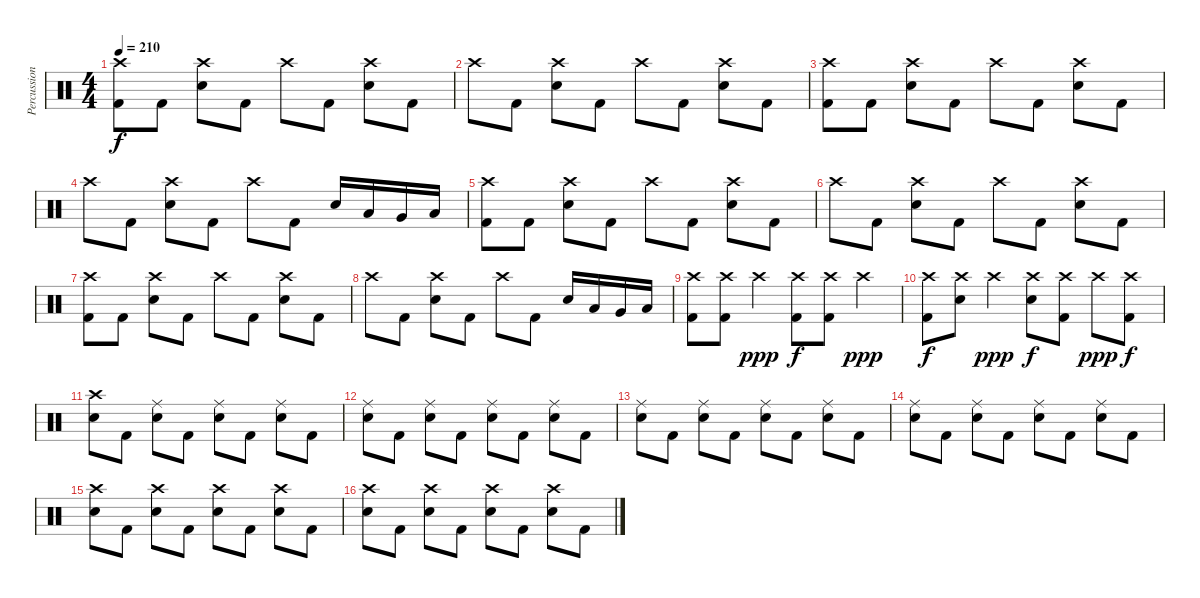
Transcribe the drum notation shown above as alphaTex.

\track ("Percussion" "Percussion") {instrument percussion}
\staff {score}
\articulation defaults
\ts (4 4)
\tempo 210
\clef neutral
\ks c
("Crash high (hit)" "Kick (hit) 2").8{dy f} "Kick (hit) 2".8 ("Crash high (hit)" "Electric Snare (hit)").8 "Kick (hit) 2".8 "Crash high (hit)".8 "Kick (hit) 2".8 ("Crash high (hit)" "Electric Snare (hit)").8 "Kick (hit) 2".8 |
"Crash high (hit)".8 "Kick (hit) 2".8 ("Crash high (hit)" "Electric Snare (hit)").8 "Kick (hit) 2".8 "Crash high (hit)".8 "Kick (hit) 2".8 ("Crash high (hit)" "Electric Snare (hit)").8 "Kick (hit) 2".8 |
("Crash high (hit)" "Kick (hit) 2").8 "Kick (hit) 2".8 ("Crash high (hit)" "Electric Snare (hit)").8 "Kick (hit) 2".8 "Crash high (hit)".8 "Kick (hit) 2".8 ("Crash high (hit)" "Electric Snare (hit)").8 "Kick (hit) 2".8 |
"Crash high (hit)".8 "Kick (hit) 2".8 ("Crash high (hit)" "Electric Snare (hit)").8 "Kick (hit) 2".8 "Crash high (hit)".8 "Kick (hit) 2".8 "Electric Snare (hit)".16 "Low Tom (hit)".16 "Very Low Tom (hit)".16 "Low Floor Tom (hit)".16 |
("Crash high (hit)" "Kick (hit) 2").8 "Kick (hit) 2".8 ("Crash high (hit)" "Electric Snare (hit)").8 "Kick (hit) 2".8 "Crash high (hit)".8 "Kick (hit) 2".8 ("Crash high (hit)" "Electric Snare (hit)").8 "Kick (hit) 2".8 |
"Crash high (hit)".8 "Kick (hit) 2".8 ("Crash high (hit)" "Electric Snare (hit)").8 "Kick (hit) 2".8 "Crash high (hit)".8 "Kick (hit) 2".8 ("Crash high (hit)" "Electric Snare (hit)").8 "Kick (hit) 2".8 |
("Crash high (hit)" "Kick (hit) 2").8 "Kick (hit) 2".8 ("Crash high (hit)" "Electric Snare (hit)").8 "Kick (hit) 2".8 "Crash high (hit)".8 "Kick (hit) 2".8 ("Crash high (hit)" "Electric Snare (hit)").8 "Kick (hit) 2".8 |
"Crash high (hit)".8 "Kick (hit) 2".8 ("Crash high (hit)" "Electric Snare (hit)").8 "Kick (hit) 2".8 "Crash high (hit)".8 "Kick (hit) 2".8 "Electric Snare (hit)".16 "Low Tom (hit)".16 "Very Low Tom (hit)".16 "Low Floor Tom (hit)".16 |
("Crash high (hit)" "Kick (hit) 2").8 ("Crash high (hit)" "Kick (hit) 2").8 "Crash high (hit)".4{dy ppp} ("Crash high (hit)" "Kick (hit) 2").8{dy f} ("Crash high (hit)" "Kick (hit) 2").8 "Crash high (hit)".4{dy ppp} |
("Crash high (hit)" "Kick (hit) 2").8{dy f} ("Crash high (hit)" "Electric Snare (hit)").8 "Crash high (hit)".4{dy ppp} ("Crash high (hit)" "Electric Snare (hit)").8{dy f} ("Crash high (hit)" "Kick (hit) 2").8 "Crash high (hit)".8{dy ppp} ("Crash high (hit)" "Kick (hit) 2").8{dy f} |
("Crash high (hit)" "Electric Snare (hit)").8 "Kick (hit) 2".8 ("Ride (middle)" "Electric Snare (hit)").8 "Kick (hit) 2".8 ("Ride (middle)" "Electric Snare (hit)").8 "Kick (hit) 2".8 ("Ride (middle)" "Electric Snare (hit)").8 "Kick (hit) 2".8 |
("Ride (middle)" "Electric Snare (hit)").8 "Kick (hit) 2".8 ("Ride (middle)" "Electric Snare (hit)").8 "Kick (hit) 2".8 ("Ride (middle)" "Electric Snare (hit)").8 "Kick (hit) 2".8 ("Ride (middle)" "Electric Snare (hit)").8 "Kick (hit) 2".8 |
("Ride (middle)" "Electric Snare (hit)").8 "Kick (hit) 2".8 ("Ride (middle)" "Electric Snare (hit)").8 "Kick (hit) 2".8 ("Ride (middle)" "Electric Snare (hit)").8 "Kick (hit) 2".8 ("Ride (middle)" "Electric Snare (hit)").8 "Kick (hit) 2".8 |
("Ride (middle)" "Electric Snare (hit)").8 "Kick (hit) 2".8 ("Ride (middle)" "Electric Snare (hit)").8 "Kick (hit) 2".8 ("Ride (middle)" "Electric Snare (hit)").8 "Kick (hit) 2".8 ("Ride (middle)" "Electric Snare (hit)").8 "Kick (hit) 2".8 |
("Crash high (hit)" "Electric Snare (hit)").8 "Kick (hit) 2".8 ("Crash high (hit)" "Electric Snare (hit)").8 "Kick (hit) 2".8 ("Crash high (hit)" "Electric Snare (hit)").8 "Kick (hit) 2".8 ("Crash high (hit)" "Electric Snare (hit)").8 "Kick (hit) 2".8 |
("Crash high (hit)" "Electric Snare (hit)").8 "Kick (hit) 2".8 ("Crash high (hit)" "Electric Snare (hit)").8 "Kick (hit) 2".8 ("Crash high (hit)" "Electric Snare (hit)").8 "Kick (hit) 2".8 ("Crash high (hit)" "Electric Snare (hit)").8 "Kick (hit) 2".8
